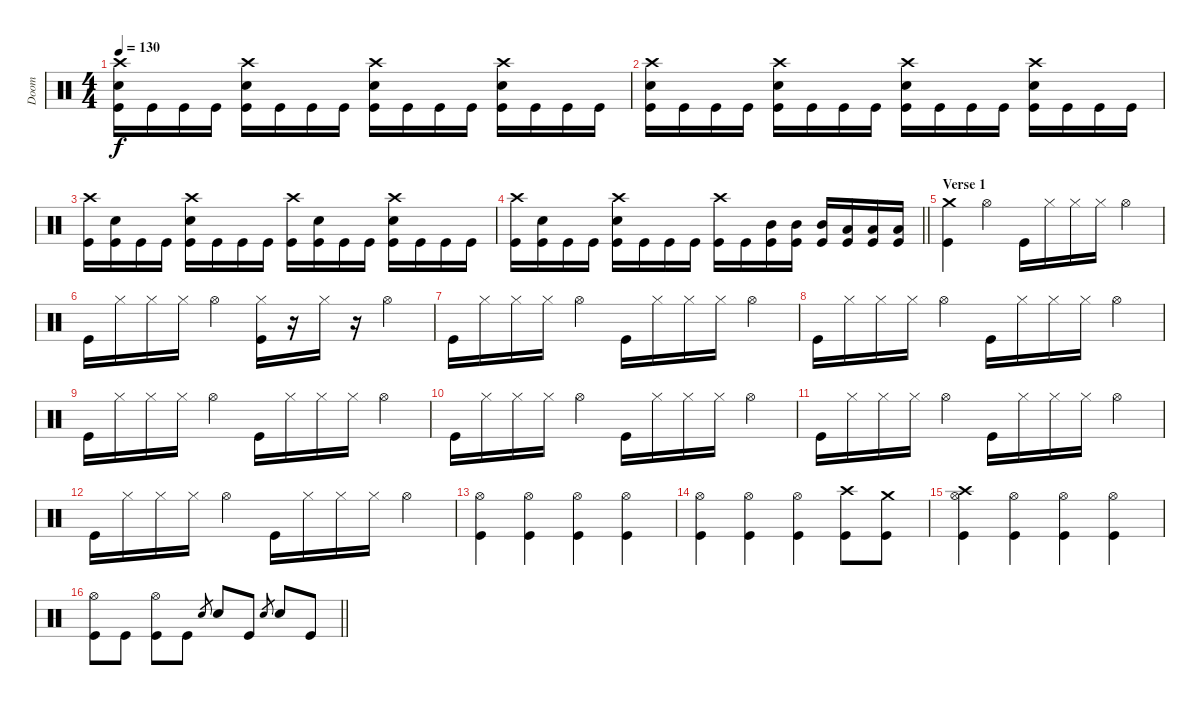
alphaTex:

\track ("Doom" "Doom") {instrument percussion}
\staff {score}
\articulation defaults
\ts (4 4)
\tempo 130
\clef neutral
\ks c
("Crash high (hit)" "Electric Snare (hit)" "Kick (hit)").16{dy f} "Kick (hit)".16 "Kick (hit)".16 "Kick (hit)".16 ("Crash high (hit)" "Electric Snare (hit)" "Kick (hit)").16 "Kick (hit)".16 "Kick (hit)".16 "Kick (hit)".16 ("Crash high (hit)" "Electric Snare (hit)" "Kick (hit)").16 "Kick (hit)".16 "Kick (hit)".16 "Kick (hit)".16 ("Crash high (hit)" "Electric Snare (hit)" "Kick (hit)").16 "Kick (hit)".16 "Kick (hit)".16 "Kick (hit)".16 |
("Crash high (hit)" "Electric Snare (hit)" "Kick (hit)").16 "Kick (hit)".16 "Kick (hit)".16 "Kick (hit)".16 ("Crash high (hit)" "Electric Snare (hit)" "Kick (hit)").16 "Kick (hit)".16 "Kick (hit)".16 "Kick (hit)".16 ("Crash high (hit)" "Electric Snare (hit)" "Kick (hit)").16 "Kick (hit)".16 "Kick (hit)".16 "Kick (hit)".16 ("Crash high (hit)" "Electric Snare (hit)" "Kick (hit)").16 "Kick (hit)".16 "Kick (hit)".16 "Kick (hit)".16 |
("Crash high (hit)" "Kick (hit)").16 ("Electric Snare (hit)" "Kick (hit)").16 "Kick (hit)".16 "Kick (hit)".16 ("Crash high (hit)" "Electric Snare (hit)" "Kick (hit)").16 "Kick (hit)".16 "Kick (hit)".16 "Kick (hit)".16 ("Crash high (hit)" "Kick (hit)").16 ("Electric Snare (hit)" "Kick (hit)").16 "Kick (hit)".16 "Kick (hit)".16 ("Crash high (hit)" "Electric Snare (hit)" "Kick (hit)").16 "Kick (hit)".16 "Kick (hit)".16 "Kick (hit)".16 |
\barLineRight lightlight
("Crash high (hit)" "Kick (hit)").16 ("Electric Snare (hit)" "Kick (hit)").16 "Kick (hit)".16 "Kick (hit)".16 ("Crash high (hit)" "Electric Snare (hit)" "Kick (hit)").16 "Kick (hit)".16 "Kick (hit)".16 "Kick (hit)".16 ("Crash high (hit)" "Kick (hit)").16 "Kick (hit)".16 ("Mid Tom (hit)" "Kick (hit)").16 ("Mid Tom (hit)" "Kick (hit)").16 ("Mid Tom (hit)" "Kick (hit)").16 ("Low Tom (hit)" "Kick (hit)").16 ("Low Tom (hit)" "Kick (hit)").16 ("Low Tom (hit)" "Kick (hit)").16 |
\section ("" "Verse 1")
("Crash medium (hit)" "Kick (hit)").4 "Hi-Hat (open)".4 "Kick (hit)".16 "Hi-Hat (closed)".16 "Hi-Hat (closed)".16 "Hi-Hat (closed)".16 "Hi-Hat (open)".4 |
"Kick (hit)".16 "Hi-Hat (closed)".16 "Hi-Hat (closed)".16 "Hi-Hat (closed)".16 "Hi-Hat (open)".4 ("Hi-Hat (closed)" "Kick (hit)").16 r.16 "Hi-Hat (closed)".16 r.16 "Hi-Hat (open)".4 |
"Kick (hit)".16 "Hi-Hat (closed)".16 "Hi-Hat (closed)".16 "Hi-Hat (closed)".16 "Hi-Hat (open)".4 "Kick (hit)".16 "Hi-Hat (closed)".16 "Hi-Hat (closed)".16 "Hi-Hat (closed)".16 "Hi-Hat (open)".4 |
"Kick (hit)".16 "Hi-Hat (closed)".16 "Hi-Hat (closed)".16 "Hi-Hat (closed)".16 "Hi-Hat (open)".4 "Kick (hit)".16 "Hi-Hat (closed)".16 "Hi-Hat (closed)".16 "Hi-Hat (closed)".16 "Hi-Hat (open)".4 |
"Kick (hit)".16 "Hi-Hat (closed)".16 "Hi-Hat (closed)".16 "Hi-Hat (closed)".16 "Hi-Hat (open)".4 "Kick (hit)".16 "Hi-Hat (closed)".16 "Hi-Hat (closed)".16 "Hi-Hat (closed)".16 "Hi-Hat (open)".4 |
"Kick (hit)".16 "Hi-Hat (closed)".16 "Hi-Hat (closed)".16 "Hi-Hat (closed)".16 "Hi-Hat (open)".4 "Kick (hit)".16 "Hi-Hat (closed)".16 "Hi-Hat (closed)".16 "Hi-Hat (closed)".16 "Hi-Hat (open)".4 |
"Kick (hit)".16 "Hi-Hat (closed)".16 "Hi-Hat (closed)".16 "Hi-Hat (closed)".16 "Hi-Hat (open)".4 "Kick (hit)".16 "Hi-Hat (closed)".16 "Hi-Hat (closed)".16 "Hi-Hat (closed)".16 "Hi-Hat (open)".4 |
"Kick (hit)".16 "Hi-Hat (closed)".16 "Hi-Hat (closed)".16 "Hi-Hat (closed)".16 "Hi-Hat (open)".4 "Kick (hit)".16 "Hi-Hat (closed)".16 "Hi-Hat (closed)".16 "Hi-Hat (closed)".16 "Hi-Hat (open)".4 |
("Hi-Hat (open)" "Kick (hit)").4 ("Hi-Hat (open)" "Kick (hit)").4 ("Hi-Hat (open)" "Kick (hit)").4 ("Hi-Hat (open)" "Kick (hit)").4 |
("Hi-Hat (open)" "Kick (hit)").4 ("Hi-Hat (open)" "Kick (hit)").4 ("Hi-Hat (open)" "Kick (hit)").4 ("Crash high (hit)" "Kick (hit)").8 ("Crash medium (hit)" "Kick (hit)").8 |
("Crash high (hit)" "Hi-Hat (open)" "Kick (hit)").4 ("Hi-Hat (open)" "Kick (hit)").4 ("Hi-Hat (open)" "Kick (hit)").4 ("Hi-Hat (open)" "Kick (hit)").4 |
\barLineRight lightlight
("Hi-Hat (open)" "Kick (hit)").8 "Kick (hit)".8 ("Hi-Hat (open)" "Kick (hit)").8 "Kick (hit)".8 "Electric Snare (hit)".8{gr} "Electric Snare (hit)".8 "Kick (hit)".8 "Electric Snare (hit)".8{gr} "Electric Snare (hit)".8 "Kick (hit)".8
